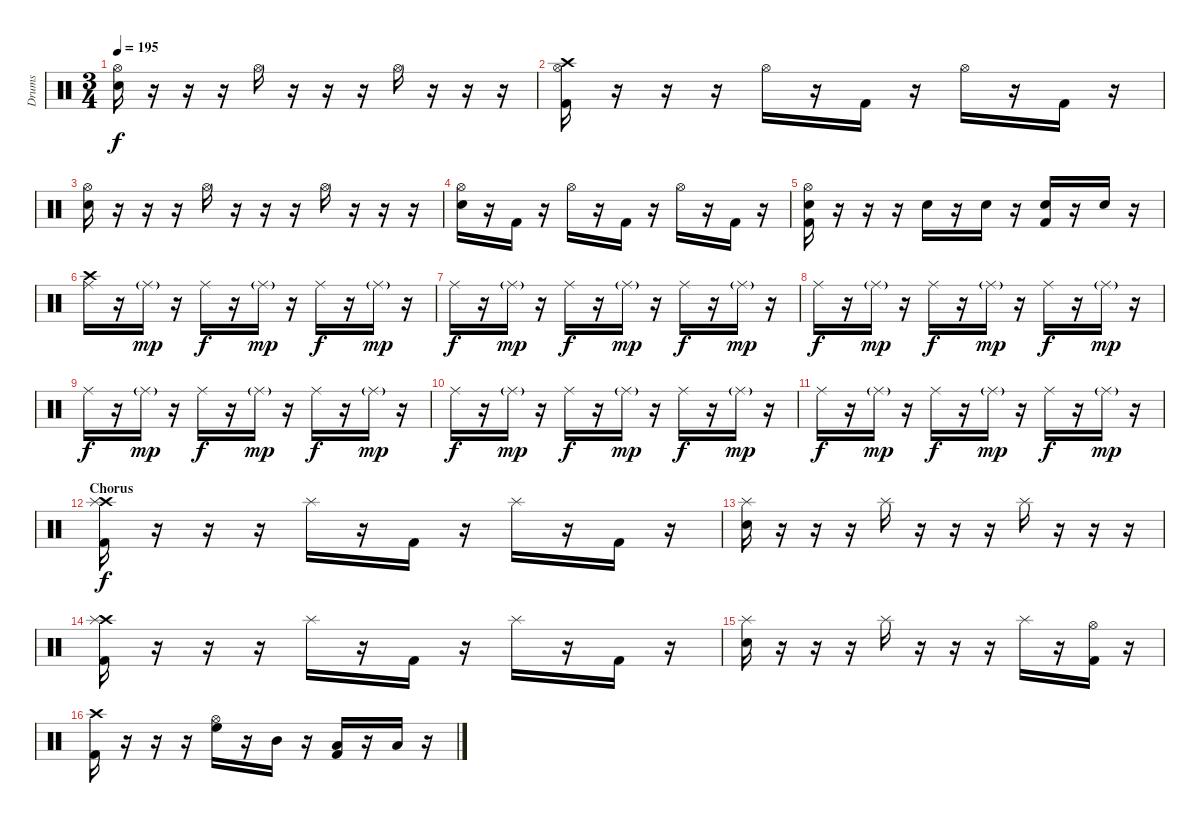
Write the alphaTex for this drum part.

\track ("Drums" "Drums") {instrument percussion}
\staff {score}
\articulation defaults
\ts (3 4)
\tempo 195
\clef neutral
\ks c
("Hi-Hat (open)" "Snare (hit) 2").16{dy f} r.16 r.16 r.16 "Hi-Hat (open)".16 r.16 r.16 r.16 "Hi-Hat (open)".16 r.16 r.16 r.16 |
("Crash high (hit)" "Hi-Hat (open)" "Kick (hit) 2").16 r.16 r.16 r.16 "Hi-Hat (open)".16 r.16 "Kick (hit) 2".16 r.16 "Hi-Hat (open)".16 r.16 "Kick (hit) 2".16 r.16 |
("Hi-Hat (open)" "Snare (hit) 2").16 r.16 r.16 r.16 "Hi-Hat (open)".16 r.16 r.16 r.16 "Hi-Hat (open)".16 r.16 r.16 r.16 |
("Hi-Hat (open)" "Snare (hit) 2").16 r.16 "Kick (hit) 2".16 r.16 "Hi-Hat (open)".16 r.16 "Kick (hit) 2".16 r.16 "Hi-Hat (open)".16 r.16 "Kick (hit) 2".16 r.16 |
("Hi-Hat (open)" "Snare (hit) 2" "Kick (hit) 2").16 r.16 r.16 r.16 "Snare (hit) 2".16 r.16 "Snare (hit) 2".16 r.16 ("Snare (hit) 2" "Kick (hit) 2").16 r.16 "Snare (hit) 2".16 r.16 |
("Crash high (hit)" "Ride (middle)").16 r.16 "Ride (middle)"{g}.16{dy mp} r.16 "Ride (middle)".16{dy f} r.16 "Ride (middle)"{g}.16{dy mp} r.16 "Ride (middle)".16{dy f} r.16 "Ride (middle)"{g}.16{dy mp} r.16 |
"Ride (middle)".16{dy f} r.16 "Ride (middle)"{g}.16{dy mp} r.16 "Ride (middle)".16{dy f} r.16 "Ride (middle)"{g}.16{dy mp} r.16 "Ride (middle)".16{dy f} r.16 "Ride (middle)"{g}.16{dy mp} r.16 |
"Ride (middle)".16{dy f} r.16 "Ride (middle)"{g}.16{dy mp} r.16 "Ride (middle)".16{dy f} r.16 "Ride (middle)"{g}.16{dy mp} r.16 "Ride (middle)".16{dy f} r.16 "Ride (middle)"{g}.16{dy mp} r.16 |
"Ride (middle)".16{dy f} r.16 "Ride (middle)"{g}.16{dy mp} r.16 "Ride (middle)".16{dy f} r.16 "Ride (middle)"{g}.16{dy mp} r.16 "Ride (middle)".16{dy f} r.16 "Ride (middle)"{g}.16{dy mp} r.16 |
"Ride (middle)".16{dy f} r.16 "Ride (middle)"{g}.16{dy mp} r.16 "Ride (middle)".16{dy f} r.16 "Ride (middle)"{g}.16{dy mp} r.16 "Ride (middle)".16{dy f} r.16 "Ride (middle)"{g}.16{dy mp} r.16 |
"Ride (middle)".16{dy f} r.16 "Ride (middle)"{g}.16{dy mp} r.16 "Ride (middle)".16{dy f} r.16 "Ride (middle)"{g}.16{dy mp} r.16 "Ride (middle)".16{dy f} r.16 "Ride (middle)"{g}.16{dy mp} r.16 |
\section ("" "Chorus")
("Crash high (hit)" "Splash (hit)" "Kick (hit) 2").16{dy f} r.16 r.16 r.16 "Splash (hit)".16 r.16 "Kick (hit) 2".16 r.16 "Splash (hit)".16 r.16 "Kick (hit) 2".16 r.16 |
("Splash (hit)" "Snare (hit) 2").16 r.16 r.16 r.16 "Splash (hit)".16 r.16 r.16 r.16 "Splash (hit)".16 r.16 r.16 r.16 |
("Crash high (hit)" "Splash (hit)" "Kick (hit) 2").16 r.16 r.16 r.16 "Splash (hit)".16 r.16 "Kick (hit) 2".16 r.16 "Splash (hit)".16 r.16 "Kick (hit) 2".16 r.16 |
("Splash (hit)" "Snare (hit) 2").16 r.16 r.16 r.16 "Splash (hit)".16 r.16 r.16 r.16 "Splash (hit)".16 r.16 ("Hi-Hat (open)" "Kick (hit) 2").16 r.16 |
("Crash high (hit)" "Kick (hit) 2").16 r.16 r.16 r.16 ("Hi-Hat (open)" "High Floor Tom (hit)").16 r.16 "Mid Tom (hit)".16 r.16 ("Low Tom (hit)" "Kick (hit) 2").16 r.16 "Low Tom (hit)".16 r.16
